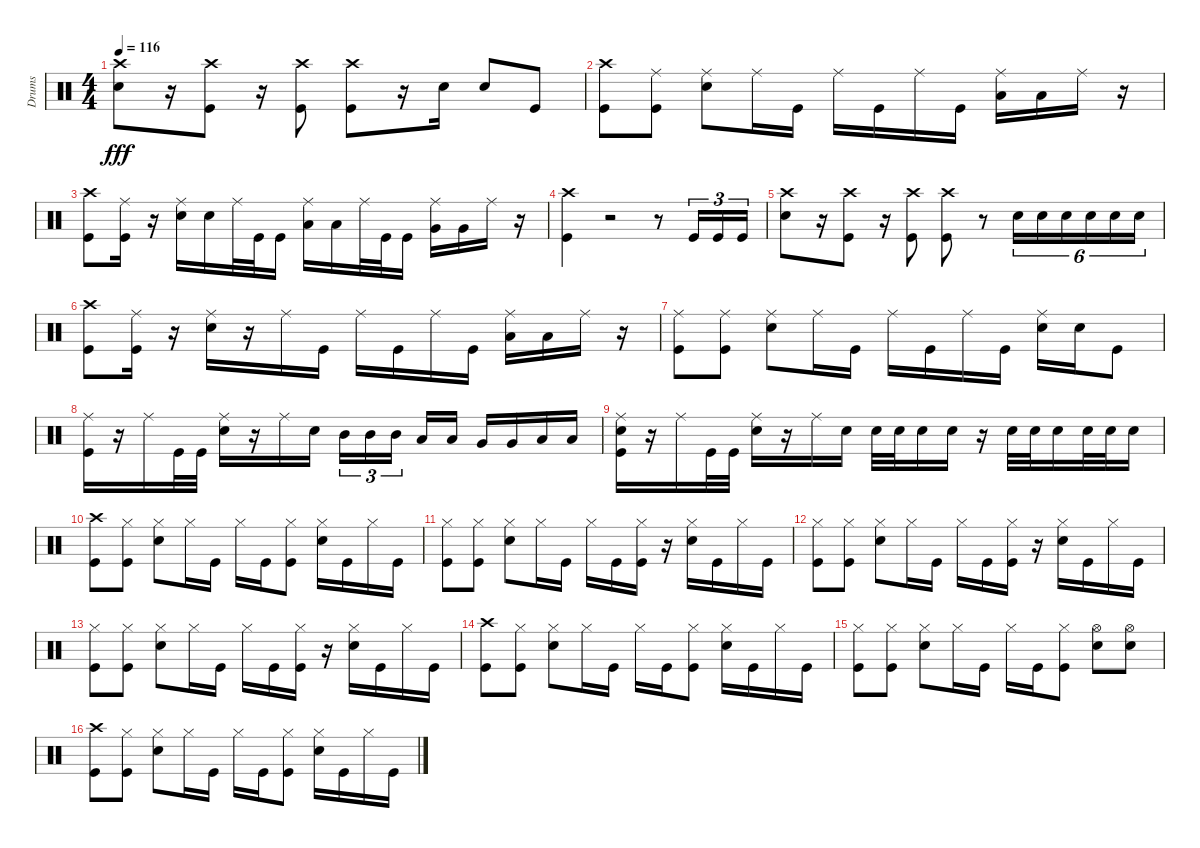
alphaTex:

\track ("Drums" "Drums") {instrument percussion}
\staff {score}
\articulation defaults
\ts (4 4)
\tempo 116
\clef neutral
\ks c
("Crash high (hit)" "Snare (hit) 2").8{dy fff} r.16 ("Kick (hit)" "Crash high (hit)").8 r.16 ("Kick (hit)" "Crash high (hit)").8 ("Crash high (hit)" "Kick (hit)").8 r.16 "Snare (hit) 2".16 "Snare (hit) 2".8 "Kick (hit)".8 |
("Crash high (hit)" "Kick (hit)").8 ("Kick (hit)" "Ride (middle)").8 ("Ride (middle)" "Snare (hit) 2").8 "Ride (middle)".16 "Kick (hit)".16 "Ride (middle)".16 "Kick (hit)".16 "Ride (middle)".16 "Kick (hit)".16 ("Ride (middle)" "Low Tom (hit)").16 "Low Tom (hit)".16 "Ride (middle)".16 r.16 |
("Kick (hit)" "Crash high (hit)").8 ("Ride (middle)" "Kick (hit)").16 r.16 ("Snare (hit) 2" "Ride (middle)").16 "Snare (hit) 2".16 "Ride (middle)".32 "Kick (hit)".32 "Kick (hit)".16 ("Low Tom (hit)" "Ride (middle)").16 "Low Tom (hit)".16 "Ride (middle)".32 "Kick (hit)".32 "Kick (hit)".16 ("Very Low Tom (hit)" "Ride (middle)").16 "Very Low Tom (hit)".16 "Ride (middle)".16 r.16 |
("Crash high (hit)" "Kick (hit)").4 r.2 r.8 "Kick (hit)".16{tu (3 2)} "Kick (hit)".16{tu (3 2)} "Kick (hit)".16{tu (3 2)} |
("Crash high (hit)" "Snare (hit) 2").8 r.16 ("Crash high (hit)" "Kick (hit)").8 r.16 ("Kick (hit)" "Crash high (hit)").8 ("Kick (hit)" "Crash high (hit)").8 r.8 "Snare (hit) 2".16{tu (6 4)} "Snare (hit) 2".16{tu (6 4)} "Snare (hit) 2".16{tu (6 4)} "Snare (hit) 2".16{tu (6 4)} "Snare (hit) 2".16{tu (6 4)} "Snare (hit) 2".16{tu (6 4)} |
("Crash high (hit)" "Kick (hit)").8 ("Kick (hit)" "Ride (middle)").16 r.16 ("Snare (hit) 2" "Ride (middle)").16 r.16 "Ride (middle)".16 "Kick (hit)".16 "Ride (middle)".16 "Kick (hit)".16 "Ride (middle)".16 "Kick (hit)".16 ("Low Tom (hit)" "Ride (middle)").16 "Low Tom (hit)".16 "Ride (middle)".16 r.16 |
("Ride (middle)" "Kick (hit)").8 ("Ride (middle)" "Kick (hit)").8 ("Ride (middle)" "Snare (hit) 2").8 "Ride (middle)".16 "Kick (hit)".16 "Ride (middle)".16 "Kick (hit)".16 "Ride (middle)".16 "Kick (hit)".16 ("Ride (middle)" "Snare (hit) 2").16 "Snare (hit) 2".16 "Kick (hit)".8 |
("Kick (hit)" "Ride (middle)").16{balance 0} r.16 "Ride (middle)".16 "Kick (hit)".32 "Kick (hit)".32 ("Ride (middle)" "Snare (hit) 2").16 r.16 "Ride (middle)".16 "Snare (hit) 2".16 "Mid Tom (hit)".16{tu (3 2) balance 16} "Mid Tom (hit)".16{tu (3 2)} "Mid Tom (hit)".16{tu (3 2)} "Low Tom (hit)".16 "Low Tom (hit)".16 "Very Low Tom (hit)".16 "Very Low Tom (hit)".16 "Low Floor Tom (hit)".16 "Low Floor Tom (hit)".16 |
("Kick (hit)" "Ride (middle)" "Snare (hit) 2").16 r.16 "Ride (middle)".16{balance 0} "Kick (hit)".32 "Kick (hit)".32 ("Snare (hit) 2" "Ride (middle)").16 r.16 "Ride (middle)".16 "Snare (hit) 2".16 "Snare (hit) 2".32{balance 16} "Snare (hit) 2".32 "Snare (hit) 2".16 "Snare (hit) 2".16 r.16 "Snare (hit) 2".32 "Snare (hit) 2".32 "Snare (hit) 2".16 "Snare (hit) 2".32 "Snare (hit) 2".32{balance 8} "Snare (hit) 2".16 |
("Kick (hit)" "Crash high (hit)").8 ("Kick (hit)" "Hi-Hat (closed)").8 ("Hi-Hat (closed)" "Snare (hit) 2").8 "Hi-Hat (closed)".16 "Kick (hit)".16 "Hi-Hat (closed)".16 "Kick (hit)".16 ("Kick (hit)" "Hi-Hat (closed)").8 ("Snare (hit) 2" "Hi-Hat (closed)").16 "Kick (hit)".16 "Hi-Hat (closed)".16 "Kick (hit)".16 |
("Kick (hit)" "Hi-Hat (closed)").8 ("Hi-Hat (closed)" "Kick (hit)").8 ("Hi-Hat (closed)" "Snare (hit) 2").8 "Hi-Hat (closed)".16 "Kick (hit)".16 "Hi-Hat (closed)".16 "Kick (hit)".16 ("Hi-Hat (closed)" "Kick (hit)").16 r.16 ("Snare (hit) 2" "Hi-Hat (closed)").16 "Kick (hit)".16 "Hi-Hat (closed)".16 "Kick (hit)".16 |
("Kick (hit)" "Hi-Hat (closed)").8 ("Hi-Hat (closed)" "Kick (hit)").8 ("Snare (hit) 2" "Hi-Hat (closed)").8 "Hi-Hat (closed)".16 "Kick (hit)".16 "Hi-Hat (closed)".16 "Kick (hit)".16 ("Hi-Hat (closed)" "Kick (hit)").16 r.16 ("Snare (hit) 2" "Hi-Hat (closed)").16 "Kick (hit)".16 "Hi-Hat (closed)".16 "Kick (hit)".16 |
("Kick (hit)" "Hi-Hat (closed)").8 ("Kick (hit)" "Hi-Hat (closed)").8 ("Snare (hit) 2" "Hi-Hat (closed)").8 "Hi-Hat (closed)".16 "Kick (hit)".16 "Hi-Hat (closed)".16 "Kick (hit)".16 ("Kick (hit)" "Hi-Hat (closed)").16 r.16 ("Hi-Hat (closed)" "Snare (hit) 2").16 "Kick (hit)".16 "Hi-Hat (closed)".16 "Kick (hit)".16 |
("Crash high (hit)" "Kick (hit)").8 ("Hi-Hat (closed)" "Kick (hit)").8 ("Snare (hit) 2" "Hi-Hat (closed)").8 "Hi-Hat (closed)".16 "Kick (hit)".16 "Hi-Hat (closed)".16 "Kick (hit)".16 ("Hi-Hat (closed)" "Kick (hit)").8 ("Hi-Hat (closed)" "Snare (hit) 2").16 "Kick (hit)".16 "Hi-Hat (closed)".16 "Kick (hit)".16 |
("Hi-Hat (closed)" "Kick (hit)").8 ("Kick (hit)" "Hi-Hat (closed)").8 ("Snare (hit) 2" "Hi-Hat (closed)").8 "Hi-Hat (closed)".16 "Kick (hit)".16 "Hi-Hat (closed)".16 "Kick (hit)".16 ("Kick (hit)" "Hi-Hat (closed)").8 ("Hi-Hat (open)" "Snare (hit) 2").8 ("Snare (hit) 2" "Hi-Hat (open)").8 |
("Kick (hit)" "Crash high (hit)").8 ("Kick (hit)" "Hi-Hat (closed)").8 ("Snare (hit) 2" "Hi-Hat (closed)").8 "Hi-Hat (closed)".16 "Kick (hit)".16 "Hi-Hat (closed)".16 "Kick (hit)".16 ("Kick (hit)" "Hi-Hat (closed)").8 ("Snare (hit) 2" "Hi-Hat (closed)").16 "Kick (hit)".16 "Hi-Hat (closed)".16 "Kick (hit)".16
